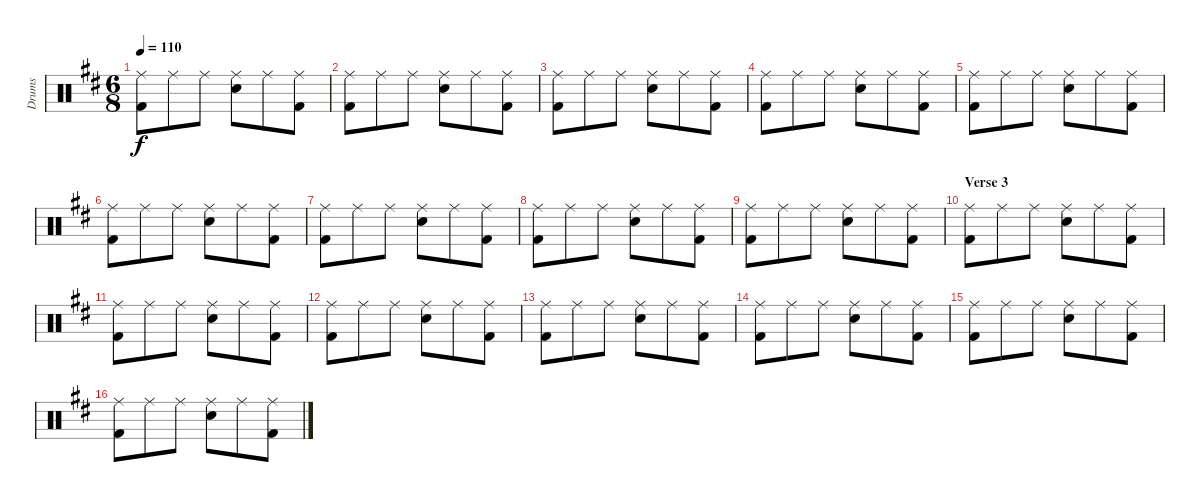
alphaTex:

\track ("Drums" "Drums") {instrument percussion}
\staff {score}
\articulation defaults
\ts (6 8)
\tempo 110
\clef neutral
\ks d
("Ride (middle)" "Kick (hit) 2").8{dy f} "Ride (middle)".8 "Ride (middle)".8 ("Ride (middle)" "Electric Snare (hit)").8 "Ride (middle)".8 ("Ride (middle)" "Kick (hit) 2").8 |
("Ride (middle)" "Kick (hit) 2").8 "Ride (middle)".8 "Ride (middle)".8 ("Ride (middle)" "Electric Snare (hit)").8 "Ride (middle)".8 ("Ride (middle)" "Kick (hit) 2").8 |
("Ride (middle)" "Kick (hit) 2").8 "Ride (middle)".8 "Ride (middle)".8 ("Ride (middle)" "Electric Snare (hit)").8 "Ride (middle)".8 ("Ride (middle)" "Kick (hit) 2").8 |
("Ride (middle)" "Kick (hit) 2").8 "Ride (middle)".8 "Ride (middle)".8 ("Ride (middle)" "Electric Snare (hit)").8 "Ride (middle)".8 ("Ride (middle)" "Kick (hit) 2").8 |
("Ride (middle)" "Kick (hit) 2").8 "Ride (middle)".8 "Ride (middle)".8 ("Ride (middle)" "Electric Snare (hit)").8 "Ride (middle)".8 ("Ride (middle)" "Kick (hit) 2").8 |
("Ride (middle)" "Kick (hit) 2").8 "Ride (middle)".8 "Ride (middle)".8 ("Ride (middle)" "Electric Snare (hit)").8 "Ride (middle)".8 ("Ride (middle)" "Kick (hit) 2").8 |
("Ride (middle)" "Kick (hit) 2").8 "Ride (middle)".8 "Ride (middle)".8 ("Ride (middle)" "Electric Snare (hit)").8 "Ride (middle)".8 ("Ride (middle)" "Kick (hit) 2").8 |
("Ride (middle)" "Kick (hit) 2").8 "Ride (middle)".8 "Ride (middle)".8 ("Ride (middle)" "Electric Snare (hit)").8 "Ride (middle)".8 ("Ride (middle)" "Kick (hit) 2").8 |
("Ride (middle)" "Kick (hit) 2").8 "Ride (middle)".8 "Ride (middle)".8 ("Ride (middle)" "Electric Snare (hit)").8 "Ride (middle)".8 ("Ride (middle)" "Kick (hit) 2").8 |
\section ("" "Verse 3")
("Ride (middle)" "Kick (hit) 2").8 "Ride (middle)".8 "Ride (middle)".8 ("Ride (middle)" "Electric Snare (hit)").8 "Ride (middle)".8 ("Ride (middle)" "Kick (hit) 2").8 |
("Ride (middle)" "Kick (hit) 2").8 "Ride (middle)".8 "Ride (middle)".8 ("Ride (middle)" "Electric Snare (hit)").8 "Ride (middle)".8 ("Ride (middle)" "Kick (hit) 2").8 |
("Ride (middle)" "Kick (hit) 2").8 "Ride (middle)".8 "Ride (middle)".8 ("Ride (middle)" "Electric Snare (hit)").8 "Ride (middle)".8 ("Ride (middle)" "Kick (hit) 2").8 |
("Ride (middle)" "Kick (hit) 2").8 "Ride (middle)".8 "Ride (middle)".8 ("Ride (middle)" "Electric Snare (hit)").8 "Ride (middle)".8 ("Ride (middle)" "Kick (hit) 2").8 |
("Ride (middle)" "Kick (hit) 2").8 "Ride (middle)".8 "Ride (middle)".8 ("Ride (middle)" "Electric Snare (hit)").8 "Ride (middle)".8 ("Ride (middle)" "Kick (hit) 2").8 |
("Ride (middle)" "Kick (hit) 2").8 "Ride (middle)".8 "Ride (middle)".8 ("Ride (middle)" "Electric Snare (hit)").8 "Ride (middle)".8 ("Ride (middle)" "Kick (hit) 2").8 |
("Ride (middle)" "Kick (hit) 2").8 "Ride (middle)".8 "Ride (middle)".8 ("Ride (middle)" "Electric Snare (hit)").8 "Ride (middle)".8 ("Ride (middle)" "Kick (hit) 2").8
